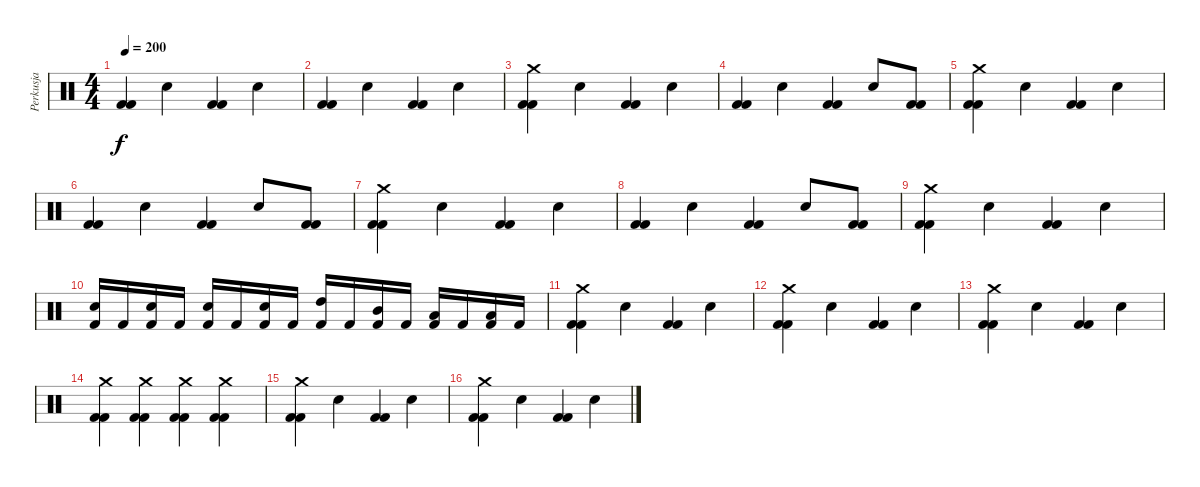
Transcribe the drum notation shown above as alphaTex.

\track ("Perkusja" "Perkusja") {instrument percussion}
\staff {score}
\articulation defaults
\ts (4 4)
\tempo 200
\clef neutral
\ks c
("Kick (hit) 2" "Kick (hit) 2").4{dy f} "Snare (hit) 2".4 ("Kick (hit) 2" "Kick (hit) 2").4 "Snare (hit) 2".4 |
("Kick (hit) 2" "Kick (hit) 2").4 "Snare (hit) 2".4 ("Kick (hit) 2" "Kick (hit) 2").4 "Snare (hit) 2".4 |
("Crash medium (hit)" "Kick (hit) 2" "Kick (hit) 2").4 "Snare (hit) 2".4 ("Kick (hit) 2" "Kick (hit) 2").4 "Snare (hit) 2".4 |
("Kick (hit) 2" "Kick (hit) 2").4 "Snare (hit) 2".4 ("Kick (hit) 2" "Kick (hit) 2").4 "Snare (hit) 2".8 ("Kick (hit) 2" "Kick (hit) 2").8 |
("Crash medium (hit)" "Kick (hit) 2" "Kick (hit) 2").4 "Snare (hit) 2".4 ("Kick (hit) 2" "Kick (hit) 2").4 "Snare (hit) 2".4 |
("Kick (hit) 2" "Kick (hit) 2").4 "Snare (hit) 2".4 ("Kick (hit) 2" "Kick (hit) 2").4 "Snare (hit) 2".8 ("Kick (hit) 2" "Kick (hit) 2").8 |
("Crash medium (hit)" "Kick (hit) 2" "Kick (hit) 2").4 "Snare (hit) 2".4 ("Kick (hit) 2" "Kick (hit) 2").4 "Snare (hit) 2".4 |
("Kick (hit) 2" "Kick (hit) 2").4 "Snare (hit) 2".4 ("Kick (hit) 2" "Kick (hit) 2").4 "Snare (hit) 2".8 ("Kick (hit) 2" "Kick (hit) 2").8 |
("Crash medium (hit)" "Kick (hit) 2" "Kick (hit) 2").4 "Snare (hit) 2".4 ("Kick (hit) 2" "Kick (hit) 2").4 "Snare (hit) 2".4 |
("Electric Snare (hit)" "Kick (hit) 2").16 "Kick (hit) 2".16 ("Electric Snare (hit)" "Kick (hit) 2").16 "Kick (hit) 2".16 ("Snare (hit) 2" "Kick (hit) 2").16 "Kick (hit) 2".16 ("Snare (hit) 2" "Kick (hit) 2").16 "Kick (hit) 2".16 ("High Tom (hit)" "Kick (hit) 2").16 "Kick (hit) 2".16 ("Mid Tom (hit)" "Kick (hit) 2").16 "Kick (hit) 2".16 ("Low Tom (hit)" "Kick (hit) 2").16 "Kick (hit) 2".16 ("Low Floor Tom (hit)" "Kick (hit) 2").16 "Kick (hit) 2".16 |
("Crash medium (hit)" "Kick (hit) 2" "Kick (hit) 2").4 "Snare (hit) 2".4 ("Kick (hit) 2" "Kick (hit) 2").4 "Snare (hit) 2".4 |
("Crash medium (hit)" "Kick (hit) 2" "Kick (hit) 2").4 "Snare (hit) 2".4 ("Kick (hit) 2" "Kick (hit) 2").4 "Snare (hit) 2".4 |
("Crash medium (hit)" "Kick (hit) 2" "Kick (hit) 2").4 "Snare (hit) 2".4 ("Kick (hit) 2" "Kick (hit) 2").4 "Snare (hit) 2".4 |
("Crash medium (hit)" "Kick (hit) 2" "Kick (hit) 2").4 ("Crash medium (hit)" "Kick (hit) 2" "Kick (hit) 2").4 ("Crash medium (hit)" "Kick (hit) 2" "Kick (hit) 2").4 ("Crash medium (hit)" "Kick (hit) 2" "Kick (hit) 2").4 |
("Crash medium (hit)" "Kick (hit) 2" "Kick (hit) 2").4 "Snare (hit) 2".4 ("Kick (hit) 2" "Kick (hit) 2").4 "Snare (hit) 2".4 |
("Crash medium (hit)" "Kick (hit) 2" "Kick (hit) 2").4 "Snare (hit) 2".4 ("Kick (hit) 2" "Kick (hit) 2").4 "Snare (hit) 2".4
